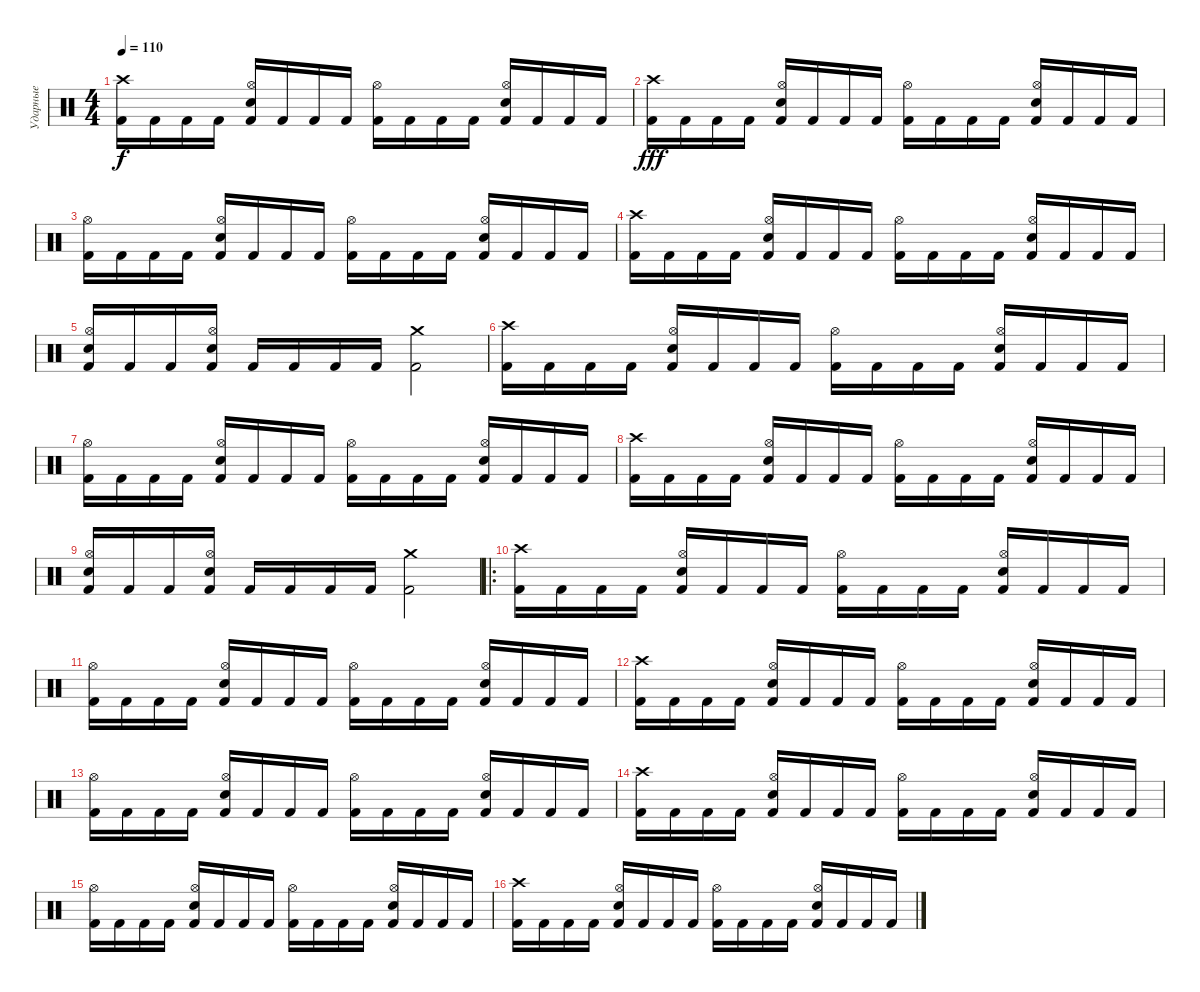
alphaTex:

\track ("Ударные" "Ударные") {instrument percussion}
\staff {score}
\articulation defaults
\ts (4 4)
\tempo 110
\clef neutral
\ks c
("Kick (hit) 2" "Crash high (hit)").16{dy f} "Kick (hit) 2".16 "Kick (hit) 2".16 "Kick (hit) 2".16 ("Kick (hit) 2" "Hi-Hat (open)" "Snare (hit) 2").16 "Kick (hit) 2".16 "Kick (hit) 2".16 "Kick (hit) 2".16 ("Kick (hit) 2" "Hi-Hat (open)").16 "Kick (hit) 2".16 "Kick (hit) 2".16 "Kick (hit) 2".16 ("Kick (hit) 2" "Hi-Hat (open)" "Snare (hit) 2").16 "Kick (hit) 2".16 "Kick (hit) 2".16 "Kick (hit) 2".16 |
("Kick (hit) 2" "Crash high (hit)").16{dy fff} "Kick (hit) 2".16 "Kick (hit) 2".16 "Kick (hit) 2".16 ("Kick (hit) 2" "Hi-Hat (open)" "Snare (hit) 2").16 "Kick (hit) 2".16 "Kick (hit) 2".16 "Kick (hit) 2".16 ("Kick (hit) 2" "Hi-Hat (open)").16 "Kick (hit) 2".16 "Kick (hit) 2".16 "Kick (hit) 2".16 ("Kick (hit) 2" "Hi-Hat (open)" "Snare (hit) 2").16 "Kick (hit) 2".16 "Kick (hit) 2".16 "Kick (hit) 2".16 |
("Kick (hit) 2" "Hi-Hat (open)").16 "Kick (hit) 2".16 "Kick (hit) 2".16 "Kick (hit) 2".16 ("Kick (hit) 2" "Hi-Hat (open)" "Snare (hit) 2").16 "Kick (hit) 2".16 "Kick (hit) 2".16 "Kick (hit) 2".16 ("Kick (hit) 2" "Hi-Hat (open)").16 "Kick (hit) 2".16 "Kick (hit) 2".16 "Kick (hit) 2".16 ("Kick (hit) 2" "Hi-Hat (open)" "Snare (hit) 2").16 "Kick (hit) 2".16 "Kick (hit) 2".16 "Kick (hit) 2".16 |
("Kick (hit) 2" "Crash high (hit)").16 "Kick (hit) 2".16 "Kick (hit) 2".16 "Kick (hit) 2".16 ("Kick (hit) 2" "Hi-Hat (open)" "Snare (hit) 2").16 "Kick (hit) 2".16 "Kick (hit) 2".16 "Kick (hit) 2".16 ("Kick (hit) 2" "Hi-Hat (open)").16 "Kick (hit) 2".16 "Kick (hit) 2".16 "Kick (hit) 2".16 ("Kick (hit) 2" "Hi-Hat (open)" "Snare (hit) 2").16 "Kick (hit) 2".16 "Kick (hit) 2".16 "Kick (hit) 2".16 |
("Kick (hit) 2" "Hi-Hat (open)" "Snare (hit) 2").16 "Kick (hit) 2".16 "Kick (hit) 2".16 ("Kick (hit) 2" "Hi-Hat (open)" "Snare (hit) 2").16 "Kick (hit) 2".16 "Kick (hit) 2".16 "Kick (hit) 2".16 "Kick (hit) 2".16 ("Kick (hit) 2" "Crash medium (hit)").2 |
("Kick (hit) 2" "Crash high (hit)").16 "Kick (hit) 2".16 "Kick (hit) 2".16 "Kick (hit) 2".16 ("Kick (hit) 2" "Hi-Hat (open)" "Snare (hit) 2").16 "Kick (hit) 2".16 "Kick (hit) 2".16 "Kick (hit) 2".16 ("Kick (hit) 2" "Hi-Hat (open)").16 "Kick (hit) 2".16 "Kick (hit) 2".16 "Kick (hit) 2".16 ("Kick (hit) 2" "Hi-Hat (open)" "Snare (hit) 2").16 "Kick (hit) 2".16 "Kick (hit) 2".16 "Kick (hit) 2".16 |
("Kick (hit) 2" "Hi-Hat (open)").16 "Kick (hit) 2".16 "Kick (hit) 2".16 "Kick (hit) 2".16 ("Kick (hit) 2" "Hi-Hat (open)" "Snare (hit) 2").16 "Kick (hit) 2".16 "Kick (hit) 2".16 "Kick (hit) 2".16 ("Kick (hit) 2" "Hi-Hat (open)").16 "Kick (hit) 2".16 "Kick (hit) 2".16 "Kick (hit) 2".16 ("Kick (hit) 2" "Hi-Hat (open)" "Snare (hit) 2").16 "Kick (hit) 2".16 "Kick (hit) 2".16 "Kick (hit) 2".16 |
("Kick (hit) 2" "Crash high (hit)").16 "Kick (hit) 2".16 "Kick (hit) 2".16 "Kick (hit) 2".16 ("Kick (hit) 2" "Hi-Hat (open)" "Snare (hit) 2").16 "Kick (hit) 2".16 "Kick (hit) 2".16 "Kick (hit) 2".16 ("Kick (hit) 2" "Hi-Hat (open)").16 "Kick (hit) 2".16 "Kick (hit) 2".16 "Kick (hit) 2".16 ("Kick (hit) 2" "Hi-Hat (open)" "Snare (hit) 2").16 "Kick (hit) 2".16 "Kick (hit) 2".16 "Kick (hit) 2".16 |
("Kick (hit) 2" "Hi-Hat (open)" "Snare (hit) 2").16 "Kick (hit) 2".16 "Kick (hit) 2".16 ("Kick (hit) 2" "Hi-Hat (open)" "Snare (hit) 2").16 "Kick (hit) 2".16 "Kick (hit) 2".16 "Kick (hit) 2".16 "Kick (hit) 2".16 ("Kick (hit) 2" "Crash medium (hit)").2 |
\ro
("Kick (hit) 2" "Crash high (hit)").16 "Kick (hit) 2".16 "Kick (hit) 2".16 "Kick (hit) 2".16 ("Kick (hit) 2" "Hi-Hat (open)" "Snare (hit) 2").16 "Kick (hit) 2".16 "Kick (hit) 2".16 "Kick (hit) 2".16 ("Kick (hit) 2" "Hi-Hat (open)").16 "Kick (hit) 2".16 "Kick (hit) 2".16 "Kick (hit) 2".16 ("Kick (hit) 2" "Hi-Hat (open)" "Snare (hit) 2").16 "Kick (hit) 2".16 "Kick (hit) 2".16 "Kick (hit) 2".16 |
("Kick (hit) 2" "Hi-Hat (open)").16 "Kick (hit) 2".16 "Kick (hit) 2".16 "Kick (hit) 2".16 ("Kick (hit) 2" "Hi-Hat (open)" "Snare (hit) 2").16 "Kick (hit) 2".16 "Kick (hit) 2".16 "Kick (hit) 2".16 ("Kick (hit) 2" "Hi-Hat (open)").16 "Kick (hit) 2".16 "Kick (hit) 2".16 "Kick (hit) 2".16 ("Kick (hit) 2" "Hi-Hat (open)" "Snare (hit) 2").16 "Kick (hit) 2".16 "Kick (hit) 2".16 "Kick (hit) 2".16 |
("Kick (hit) 2" "Crash high (hit)").16 "Kick (hit) 2".16 "Kick (hit) 2".16 "Kick (hit) 2".16 ("Kick (hit) 2" "Hi-Hat (open)" "Snare (hit) 2").16 "Kick (hit) 2".16 "Kick (hit) 2".16 "Kick (hit) 2".16 ("Kick (hit) 2" "Hi-Hat (open)").16 "Kick (hit) 2".16 "Kick (hit) 2".16 "Kick (hit) 2".16 ("Kick (hit) 2" "Hi-Hat (open)" "Snare (hit) 2").16 "Kick (hit) 2".16 "Kick (hit) 2".16 "Kick (hit) 2".16 |
("Kick (hit) 2" "Hi-Hat (open)").16 "Kick (hit) 2".16 "Kick (hit) 2".16 "Kick (hit) 2".16 ("Kick (hit) 2" "Hi-Hat (open)" "Snare (hit) 2").16 "Kick (hit) 2".16 "Kick (hit) 2".16 "Kick (hit) 2".16 ("Kick (hit) 2" "Hi-Hat (open)").16 "Kick (hit) 2".16 "Kick (hit) 2".16 "Kick (hit) 2".16 ("Kick (hit) 2" "Hi-Hat (open)" "Snare (hit) 2").16 "Kick (hit) 2".16 "Kick (hit) 2".16 "Kick (hit) 2".16 |
("Kick (hit) 2" "Crash high (hit)").16 "Kick (hit) 2".16 "Kick (hit) 2".16 "Kick (hit) 2".16 ("Kick (hit) 2" "Hi-Hat (open)" "Snare (hit) 2").16 "Kick (hit) 2".16 "Kick (hit) 2".16 "Kick (hit) 2".16 ("Kick (hit) 2" "Hi-Hat (open)").16 "Kick (hit) 2".16 "Kick (hit) 2".16 "Kick (hit) 2".16 ("Kick (hit) 2" "Hi-Hat (open)" "Snare (hit) 2").16 "Kick (hit) 2".16 "Kick (hit) 2".16 "Kick (hit) 2".16 |
("Kick (hit) 2" "Hi-Hat (open)").16 "Kick (hit) 2".16 "Kick (hit) 2".16 "Kick (hit) 2".16 ("Kick (hit) 2" "Hi-Hat (open)" "Snare (hit) 2").16 "Kick (hit) 2".16 "Kick (hit) 2".16 "Kick (hit) 2".16 ("Kick (hit) 2" "Hi-Hat (open)").16 "Kick (hit) 2".16 "Kick (hit) 2".16 "Kick (hit) 2".16 ("Kick (hit) 2" "Hi-Hat (open)" "Snare (hit) 2").16 "Kick (hit) 2".16 "Kick (hit) 2".16 "Kick (hit) 2".16 |
("Kick (hit) 2" "Crash high (hit)").16 "Kick (hit) 2".16 "Kick (hit) 2".16 "Kick (hit) 2".16 ("Kick (hit) 2" "Hi-Hat (open)" "Snare (hit) 2").16 "Kick (hit) 2".16 "Kick (hit) 2".16 "Kick (hit) 2".16 ("Kick (hit) 2" "Hi-Hat (open)").16 "Kick (hit) 2".16 "Kick (hit) 2".16 "Kick (hit) 2".16 ("Kick (hit) 2" "Hi-Hat (open)" "Snare (hit) 2").16 "Kick (hit) 2".16 "Kick (hit) 2".16 "Kick (hit) 2".16
